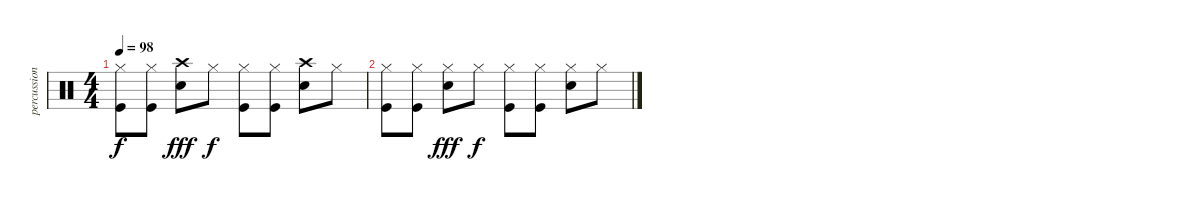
\track ("percussion" "percussion") {instrument percussion}
\staff {score}
\articulation defaults
\ts (4 4)
\tempo 98
\clef neutral
\ks c
("Hi-Hat (closed)" "Kick (hit)").8{dy f} ("Hi-Hat (closed)" "Kick (hit)").8 ("Crash high (hit)" "Electric Snare (hit)").8{dy fff} "Hi-Hat (closed)".8{dy f} ("Hi-Hat (closed)" "Kick (hit)").8 ("Hi-Hat (closed)" "Kick (hit)").8 ("Crash high (hit)" "Electric Snare (hit)").8 "Hi-Hat (closed)".8 |
("Hi-Hat (closed)" "Kick (hit)").8 ("Hi-Hat (closed)" "Kick (hit)").8 ("Electric Snare (hit)" "Hi-Hat (closed)").8{dy fff} "Hi-Hat (closed)".8{dy f} ("Hi-Hat (closed)" "Kick (hit)").8 ("Hi-Hat (closed)" "Kick (hit)").8 ("Electric Snare (hit)" "Hi-Hat (closed)").8 "Hi-Hat (closed)".8
